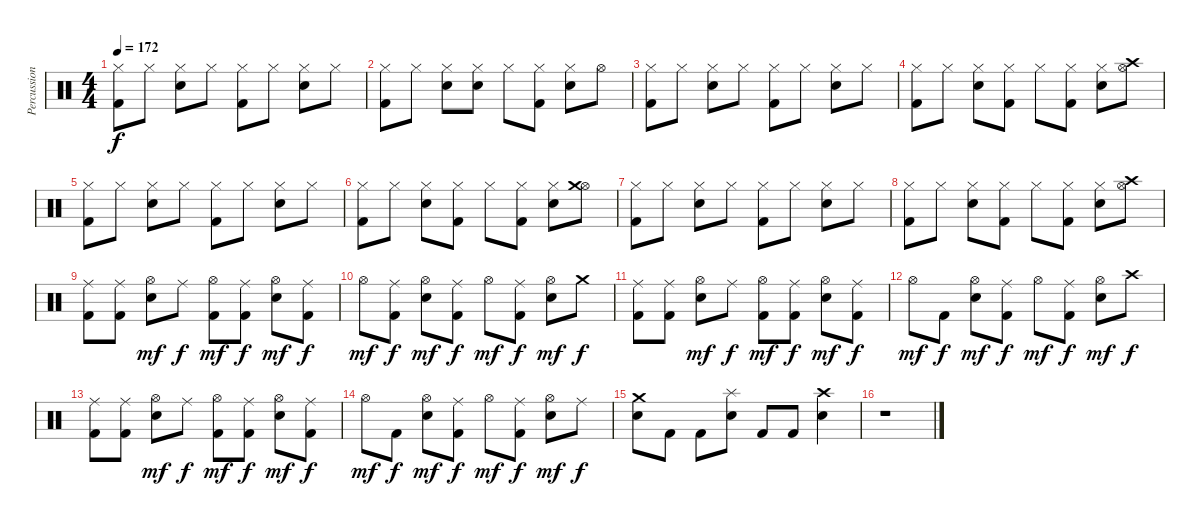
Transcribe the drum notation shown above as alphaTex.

\track ("Percussions" "Percussion") {instrument percussion}
\staff {score}
\articulation defaults
\ts (4 4)
\tempo 172
\clef neutral
\ks c
("Hi-Hat (closed)" "Kick (hit) 2").8{dy f} "Hi-Hat (closed)".8 ("Hi-Hat (closed)" "Electric Snare (hit)").8 "Hi-Hat (closed)".8 ("Hi-Hat (closed)" "Kick (hit) 2").8 "Hi-Hat (closed)".8 ("Hi-Hat (closed)" "Electric Snare (hit)").8 "Hi-Hat (closed)".8 |
("Hi-Hat (closed)" "Kick (hit) 2").8 "Hi-Hat (closed)".8 ("Hi-Hat (closed)" "Electric Snare (hit)").8 ("Hi-Hat (closed)" "Electric Snare (hit)").8 "Hi-Hat (closed)".8 ("Hi-Hat (closed)" "Kick (hit) 2").8 ("Hi-Hat (closed)" "Electric Snare (hit)").8 "Hi-Hat (open)".8 |
("Hi-Hat (closed)" "Kick (hit) 2").8 "Hi-Hat (closed)".8 ("Hi-Hat (closed)" "Electric Snare (hit)").8 "Hi-Hat (closed)".8 ("Hi-Hat (closed)" "Kick (hit) 2").8 "Hi-Hat (closed)".8 ("Hi-Hat (closed)" "Electric Snare (hit)").8 "Hi-Hat (closed)".8 |
("Hi-Hat (closed)" "Kick (hit) 2").8 "Hi-Hat (closed)".8 ("Hi-Hat (closed)" "Electric Snare (hit)").8 ("Hi-Hat (closed)" "Kick (hit) 2").8 "Hi-Hat (closed)".8 ("Hi-Hat (closed)" "Kick (hit) 2").8 ("Hi-Hat (closed)" "Electric Snare (hit)").8 ("Hi-Hat (open)" "Crash high (hit)").8 |
("Hi-Hat (closed)" "Kick (hit) 2").8 "Hi-Hat (closed)".8 ("Hi-Hat (closed)" "Electric Snare (hit)").8 "Hi-Hat (closed)".8 ("Hi-Hat (closed)" "Kick (hit) 2").8 "Hi-Hat (closed)".8 ("Hi-Hat (closed)" "Electric Snare (hit)").8 "Hi-Hat (closed)".8 |
("Hi-Hat (closed)" "Kick (hit) 2").8 "Hi-Hat (closed)".8 ("Hi-Hat (closed)" "Electric Snare (hit)").8 ("Hi-Hat (closed)" "Kick (hit) 2").8 "Hi-Hat (closed)".8 ("Hi-Hat (closed)" "Kick (hit) 2").8 ("Hi-Hat (closed)" "Electric Snare (hit)").8 ("Hi-Hat (open)" "Crash medium (hit)").8 |
("Hi-Hat (closed)" "Kick (hit) 2").8 "Hi-Hat (closed)".8 ("Hi-Hat (closed)" "Electric Snare (hit)").8 "Hi-Hat (closed)".8 ("Hi-Hat (closed)" "Kick (hit) 2").8 "Hi-Hat (closed)".8 ("Hi-Hat (closed)" "Electric Snare (hit)").8 "Hi-Hat (closed)".8 |
("Hi-Hat (closed)" "Kick (hit) 2").8 "Hi-Hat (closed)".8 ("Hi-Hat (closed)" "Electric Snare (hit)").8 ("Hi-Hat (closed)" "Kick (hit) 2").8 "Hi-Hat (closed)".8 ("Hi-Hat (closed)" "Kick (hit) 2").8 ("Hi-Hat (closed)" "Electric Snare (hit)").8 ("Hi-Hat (open)" "Crash high (hit)").8 |
("Ride (middle)" "Kick (hit) 2").8 ("Ride (middle)" "Kick (hit) 2").8 ("Hi-Hat (open)" "Electric Snare (hit)").8{dy mf} "Ride (middle)".8{dy f} ("Hi-Hat (open)" "Kick (hit) 2").8{dy mf} ("Ride (middle)" "Kick (hit) 2").8{dy f} ("Hi-Hat (open)" "Electric Snare (hit)").8{dy mf} ("Ride (middle)" "Kick (hit) 2").8{dy f} |
"Hi-Hat (open)".8{dy mf} ("Ride (middle)" "Kick (hit) 2").8{dy f} ("Hi-Hat (open)" "Electric Snare (hit)").8{dy mf} ("Ride (middle)" "Kick (hit) 2").8{dy f} "Hi-Hat (open)".8{dy mf} ("Ride (middle)" "Kick (hit) 2").8{dy f} ("Hi-Hat (open)" "Electric Snare (hit)").8{dy mf} "Crash medium (hit)".8{dy f} |
("Ride (middle)" "Kick (hit) 2").8 ("Ride (middle)" "Kick (hit) 2").8 ("Hi-Hat (open)" "Electric Snare (hit)").8{dy mf} "Ride (middle)".8{dy f} ("Hi-Hat (open)" "Kick (hit) 2").8{dy mf} ("Ride (middle)" "Kick (hit) 2").8{dy f} ("Hi-Hat (open)" "Electric Snare (hit)").8{dy mf} ("Ride (middle)" "Kick (hit) 2").8{dy f} |
"Hi-Hat (open)".8{dy mf} "Kick (hit) 2".8{dy f} ("Hi-Hat (open)" "Electric Snare (hit)").8{dy mf} ("Ride (middle)" "Kick (hit) 2").8{dy f} "Hi-Hat (open)".8{dy mf} ("Ride (middle)" "Kick (hit) 2").8{dy f} ("Hi-Hat (open)" "Electric Snare (hit)").8{dy mf} "Crash high (hit)".8{dy f} |
("Ride (middle)" "Kick (hit) 2").8 ("Ride (middle)" "Kick (hit) 2").8 ("Hi-Hat (open)" "Electric Snare (hit)").8{dy mf} "Ride (middle)".8{dy f} ("Hi-Hat (open)" "Kick (hit) 2").8{dy mf} ("Ride (middle)" "Kick (hit) 2").8{dy f} ("Hi-Hat (open)" "Electric Snare (hit)").8{dy mf} ("Ride (middle)" "Kick (hit) 2").8{dy f} |
"Hi-Hat (open)".8{dy mf} "Kick (hit) 2".8{dy f} ("Hi-Hat (open)" "Electric Snare (hit)").8{dy mf} ("Ride (middle)" "Kick (hit) 2").8{dy f} "Hi-Hat (open)".8{dy mf} ("Ride (middle)" "Kick (hit) 2").8{dy f} ("Hi-Hat (open)" "Electric Snare (hit)").8{dy mf} "Ride (middle)".8{dy f} |
("Crash medium (hit)" "Electric Snare (hit)").8 "Kick (hit) 2".8 "Kick (hit) 2".8 ("Splash (hit)" "Electric Snare (hit)").8 "Kick (hit) 2".8 "Kick (hit) 2".8 ("Crash high (hit)" "Electric Snare (hit)").4 |
r.1
